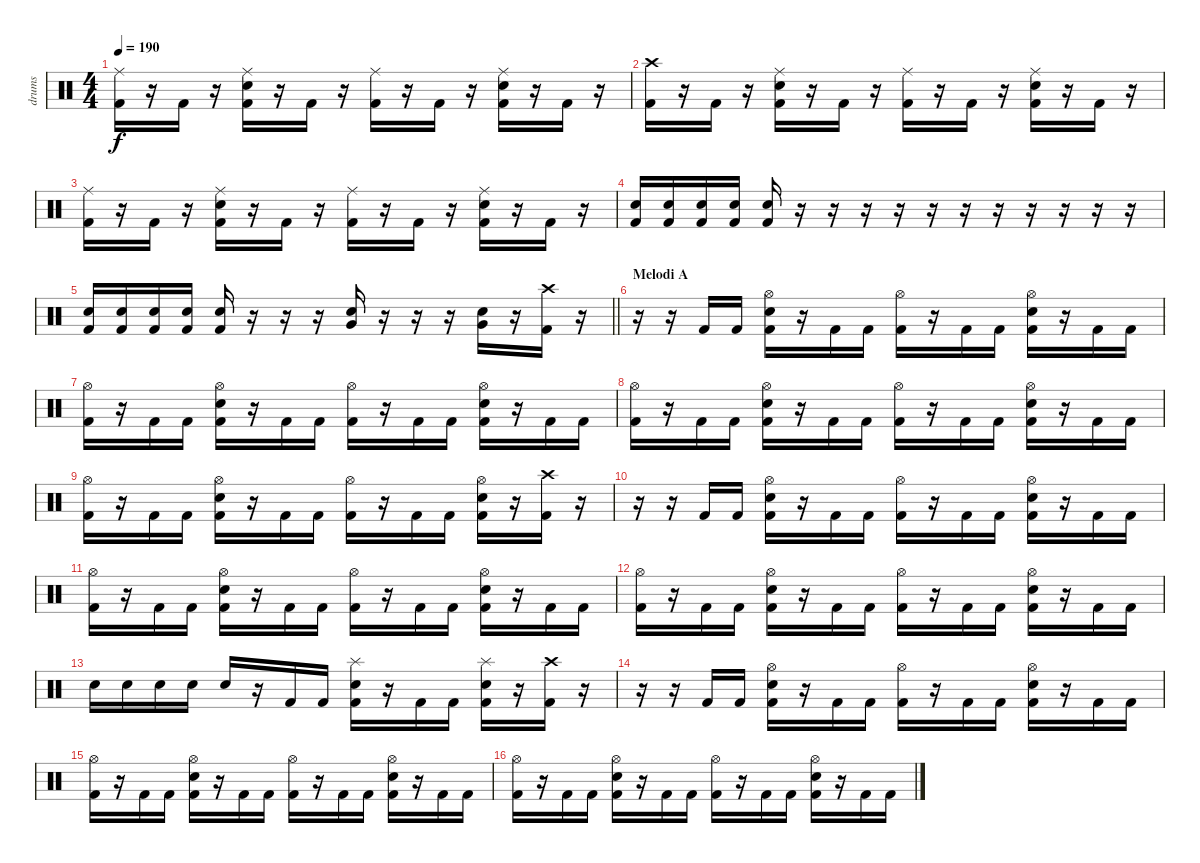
\track ("drums" "drums") {instrument percussion}
\staff {score}
\articulation defaults
\ts (4 4)
\tempo 190
\clef neutral
\ks c
("Ride (middle)" "Kick (hit) 2").16{dy f} r.16 "Kick (hit) 2".16 r.16 ("Ride (middle)" "Electric Snare (hit)" "Kick (hit) 2").16 r.16 "Kick (hit) 2".16 r.16 ("Ride (middle)" "Kick (hit) 2").16 r.16 "Kick (hit) 2".16 r.16 ("Ride (middle)" "Electric Snare (hit)" "Kick (hit) 2").16 r.16 "Kick (hit) 2".16 r.16 |
("Crash high (hit)" "Kick (hit) 2").16 r.16 "Kick (hit) 2".16 r.16 ("Ride (middle)" "Electric Snare (hit)" "Kick (hit) 2").16 r.16 "Kick (hit) 2".16 r.16 ("Ride (middle)" "Kick (hit) 2").16 r.16 "Kick (hit) 2".16 r.16 ("Ride (middle)" "Electric Snare (hit)" "Kick (hit) 2").16 r.16 "Kick (hit) 2".16 r.16 |
("Ride (middle)" "Kick (hit) 2").16 r.16 "Kick (hit) 2".16 r.16 ("Ride (middle)" "Electric Snare (hit)" "Kick (hit) 2").16 r.16 "Kick (hit) 2".16 r.16 ("Ride (middle)" "Kick (hit) 2").16 r.16 "Kick (hit) 2".16 r.16 ("Ride (middle)" "Electric Snare (hit)" "Kick (hit) 2").16 r.16 "Kick (hit) 2".16 r.16 |
("Electric Snare (hit)" "Kick (hit) 2").16 ("Electric Snare (hit)" "Kick (hit) 2").16 ("Electric Snare (hit)" "Kick (hit) 2").16 ("Electric Snare (hit)" "Kick (hit) 2").16 ("Electric Snare (hit)" "Kick (hit) 2").16 r.16 r.16 r.16 r.16 r.16 r.16 r.16 r.16 r.16 r.16 r.16 |
\barLineRight lightlight
("Electric Snare (hit)" "Kick (hit) 2").16 ("Electric Snare (hit)" "Kick (hit) 2").16 ("Electric Snare (hit)" "Kick (hit) 2").16 ("Electric Snare (hit)" "Kick (hit) 2").16 ("Electric Snare (hit)" "Kick (hit) 2").16 r.16 r.16 r.16 ("Very Low Tom (hit)" "Electric Snare (hit)").16 r.16 r.16 r.16 ("Very Low Tom (hit)" "Electric Snare (hit)").16 r.16 ("Crash high (hit)" "Kick (hit) 2").16 r.16 |
\section ("" "Melodi A")
r.16 r.16 "Kick (hit) 2".16 "Kick (hit) 2".16 ("Hi-Hat (open)" "Electric Snare (hit)" "Kick (hit) 2").16 r.16 "Kick (hit) 2".16 "Kick (hit) 2".16 ("Hi-Hat (open)" "Kick (hit) 2").16 r.16 "Kick (hit) 2".16 "Kick (hit) 2".16 ("Hi-Hat (open)" "Electric Snare (hit)" "Kick (hit) 2").16 r.16 "Kick (hit) 2".16 "Kick (hit) 2".16 |
("Hi-Hat (open)" "Kick (hit) 2").16 r.16 "Kick (hit) 2".16 "Kick (hit) 2".16 ("Hi-Hat (open)" "Electric Snare (hit)" "Kick (hit) 2").16 r.16 "Kick (hit) 2".16 "Kick (hit) 2".16 ("Hi-Hat (open)" "Kick (hit) 2").16 r.16 "Kick (hit) 2".16 "Kick (hit) 2".16 ("Hi-Hat (open)" "Electric Snare (hit)" "Kick (hit) 2").16 r.16 "Kick (hit) 2".16 "Kick (hit) 2".16 |
("Hi-Hat (open)" "Kick (hit) 2").16 r.16 "Kick (hit) 2".16 "Kick (hit) 2".16 ("Hi-Hat (open)" "Electric Snare (hit)" "Kick (hit) 2").16 r.16 "Kick (hit) 2".16 "Kick (hit) 2".16 ("Hi-Hat (open)" "Kick (hit) 2").16 r.16 "Kick (hit) 2".16 "Kick (hit) 2".16 ("Hi-Hat (open)" "Electric Snare (hit)" "Kick (hit) 2").16 r.16 "Kick (hit) 2".16 "Kick (hit) 2".16 |
("Hi-Hat (open)" "Kick (hit) 2").16 r.16 "Kick (hit) 2".16 "Kick (hit) 2".16 ("Hi-Hat (open)" "Electric Snare (hit)" "Kick (hit) 2").16 r.16 "Kick (hit) 2".16 "Kick (hit) 2".16 ("Hi-Hat (open)" "Kick (hit) 2").16 r.16 "Kick (hit) 2".16 "Kick (hit) 2".16 ("Hi-Hat (open)" "Electric Snare (hit)" "Kick (hit) 2").16 r.16 ("Crash high (hit)" "Kick (hit) 2").16 r.16 |
r.16 r.16 "Kick (hit) 2".16 "Kick (hit) 2".16 ("Hi-Hat (open)" "Electric Snare (hit)" "Kick (hit) 2").16 r.16 "Kick (hit) 2".16 "Kick (hit) 2".16 ("Hi-Hat (open)" "Kick (hit) 2").16 r.16 "Kick (hit) 2".16 "Kick (hit) 2".16 ("Hi-Hat (open)" "Electric Snare (hit)" "Kick (hit) 2").16 r.16 "Kick (hit) 2".16 "Kick (hit) 2".16 |
("Hi-Hat (open)" "Kick (hit) 2").16 r.16 "Kick (hit) 2".16 "Kick (hit) 2".16 ("Hi-Hat (open)" "Electric Snare (hit)" "Kick (hit) 2").16 r.16 "Kick (hit) 2".16 "Kick (hit) 2".16 ("Hi-Hat (open)" "Kick (hit) 2").16 r.16 "Kick (hit) 2".16 "Kick (hit) 2".16 ("Hi-Hat (open)" "Electric Snare (hit)" "Kick (hit) 2").16 r.16 "Kick (hit) 2".16 "Kick (hit) 2".16 |
("Hi-Hat (open)" "Kick (hit) 2").16 r.16 "Kick (hit) 2".16 "Kick (hit) 2".16 ("Hi-Hat (open)" "Electric Snare (hit)" "Kick (hit) 2").16 r.16 "Kick (hit) 2".16 "Kick (hit) 2".16 ("Hi-Hat (open)" "Kick (hit) 2").16 r.16 "Kick (hit) 2".16 "Kick (hit) 2".16 ("Hi-Hat (open)" "Electric Snare (hit)" "Kick (hit) 2").16 r.16 "Kick (hit) 2".16 "Kick (hit) 2".16 |
"Electric Snare (hit)".16 "Electric Snare (hit)".16 "Electric Snare (hit)".16 "Electric Snare (hit)".16 "Electric Snare (hit)".16 r.16 "Kick (hit) 2".16 "Kick (hit) 2".16 ("Splash (hit)" "Electric Snare (hit)" "Kick (hit) 2").16 r.16 "Kick (hit) 2".16 "Kick (hit) 2".16 ("Splash (hit)" "Electric Snare (hit)" "Kick (hit) 2").16 r.16 ("Crash high (hit)" "Kick (hit) 2").16 r.16 |
r.16 r.16 "Kick (hit) 2".16 "Kick (hit) 2".16 ("Hi-Hat (open)" "Electric Snare (hit)" "Kick (hit) 2").16 r.16 "Kick (hit) 2".16 "Kick (hit) 2".16 ("Hi-Hat (open)" "Kick (hit) 2").16 r.16 "Kick (hit) 2".16 "Kick (hit) 2".16 ("Hi-Hat (open)" "Electric Snare (hit)" "Kick (hit) 2").16 r.16 "Kick (hit) 2".16 "Kick (hit) 2".16 |
("Hi-Hat (open)" "Kick (hit) 2").16 r.16 "Kick (hit) 2".16 "Kick (hit) 2".16 ("Hi-Hat (open)" "Electric Snare (hit)" "Kick (hit) 2").16 r.16 "Kick (hit) 2".16 "Kick (hit) 2".16 ("Hi-Hat (open)" "Kick (hit) 2").16 r.16 "Kick (hit) 2".16 "Kick (hit) 2".16 ("Hi-Hat (open)" "Electric Snare (hit)" "Kick (hit) 2").16 r.16 "Kick (hit) 2".16 "Kick (hit) 2".16 |
("Hi-Hat (open)" "Kick (hit) 2").16 r.16 "Kick (hit) 2".16 "Kick (hit) 2".16 ("Hi-Hat (open)" "Electric Snare (hit)" "Kick (hit) 2").16 r.16 "Kick (hit) 2".16 "Kick (hit) 2".16 ("Hi-Hat (open)" "Kick (hit) 2").16 r.16 "Kick (hit) 2".16 "Kick (hit) 2".16 ("Hi-Hat (open)" "Electric Snare (hit)" "Kick (hit) 2").16 r.16 "Kick (hit) 2".16 "Kick (hit) 2".16
